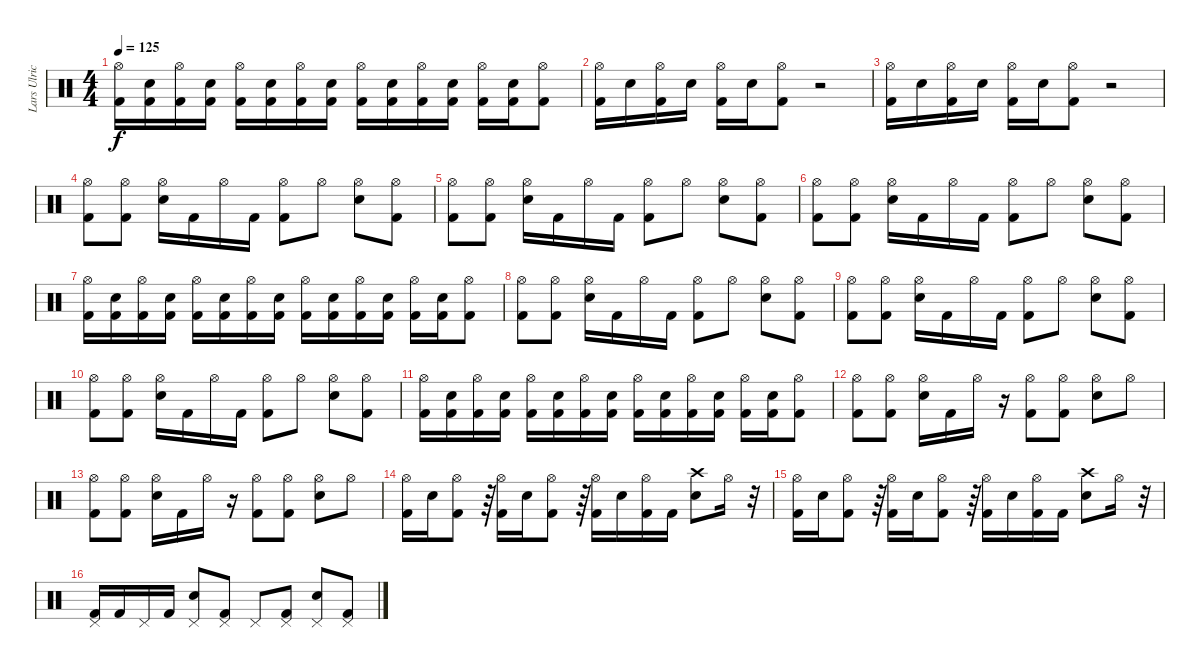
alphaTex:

\track ("Lars Ulrich" "Lars Ulric") {instrument percussion}
\staff {score}
\articulation defaults
\ts (4 4)
\tempo 125
\clef neutral
\ks c
("Hi-Hat (open)" "Kick (hit) 2").16{dy f} ("Electric Snare (hit)" "Kick (hit) 2").16 ("Hi-Hat (open)" "Kick (hit) 2").16 ("Electric Snare (hit)" "Kick (hit) 2").16 ("Hi-Hat (open)" "Kick (hit) 2").16 ("Electric Snare (hit)" "Kick (hit) 2").16 ("Hi-Hat (open)" "Kick (hit) 2").16 ("Electric Snare (hit)" "Kick (hit) 2").16 ("Hi-Hat (open)" "Kick (hit) 2").16 ("Electric Snare (hit)" "Kick (hit) 2").16 ("Hi-Hat (open)" "Kick (hit) 2").16 ("Electric Snare (hit)" "Kick (hit) 2").16 ("Hi-Hat (open)" "Kick (hit) 2").16 ("Electric Snare (hit)" "Kick (hit) 2").16 ("Hi-Hat (open)" "Kick (hit) 2").8 |
("Hi-Hat (open)" "Kick (hit) 2").16 "Electric Snare (hit)".16 ("Hi-Hat (open)" "Kick (hit) 2").16 "Electric Snare (hit)".16 ("Hi-Hat (open)" "Kick (hit) 2").16 "Electric Snare (hit)".16 ("Hi-Hat (open)" "Kick (hit) 2").8 r.2 |
("Hi-Hat (open)" "Kick (hit) 2").16 "Electric Snare (hit)".16 ("Hi-Hat (open)" "Kick (hit) 2").16 "Electric Snare (hit)".16 ("Hi-Hat (open)" "Kick (hit) 2").16 "Electric Snare (hit)".16 ("Hi-Hat (open)" "Kick (hit) 2").8 r.2 |
("Hi-Hat (open)" "Kick (hit) 2").8 ("Hi-Hat (open)" "Kick (hit) 2").8 ("Hi-Hat (open)" "Electric Snare (hit)").16 "Kick (hit) 2".16 "Hi-Hat (open)".16 "Kick (hit) 2".16 ("Hi-Hat (open)" "Kick (hit) 2").8 "Hi-Hat (open)".8 ("Hi-Hat (open)" "Electric Snare (hit)").8 ("Hi-Hat (open)" "Kick (hit) 2").8 |
("Hi-Hat (open)" "Kick (hit) 2").8 ("Hi-Hat (open)" "Kick (hit) 2").8 ("Hi-Hat (open)" "Electric Snare (hit)").16 "Kick (hit) 2".16 "Hi-Hat (open)".16 "Kick (hit) 2".16 ("Hi-Hat (open)" "Kick (hit) 2").8 "Hi-Hat (open)".8 ("Hi-Hat (open)" "Electric Snare (hit)").8 ("Hi-Hat (open)" "Kick (hit) 2").8 |
("Hi-Hat (open)" "Kick (hit) 2").8 ("Hi-Hat (open)" "Kick (hit) 2").8 ("Hi-Hat (open)" "Electric Snare (hit)").16 "Kick (hit) 2".16 "Hi-Hat (open)".16 "Kick (hit) 2".16 ("Hi-Hat (open)" "Kick (hit) 2").8 "Hi-Hat (open)".8 ("Hi-Hat (open)" "Electric Snare (hit)").8 ("Hi-Hat (open)" "Kick (hit) 2").8 |
("Hi-Hat (open)" "Kick (hit) 2").16 ("Electric Snare (hit)" "Kick (hit) 2").16 ("Hi-Hat (open)" "Kick (hit) 2").16 ("Electric Snare (hit)" "Kick (hit) 2").16 ("Hi-Hat (open)" "Kick (hit) 2").16 ("Electric Snare (hit)" "Kick (hit) 2").16 ("Hi-Hat (open)" "Kick (hit) 2").16 ("Electric Snare (hit)" "Kick (hit) 2").16 ("Hi-Hat (open)" "Kick (hit) 2").16 ("Electric Snare (hit)" "Kick (hit) 2").16 ("Hi-Hat (open)" "Kick (hit) 2").16 ("Electric Snare (hit)" "Kick (hit) 2").16 ("Hi-Hat (open)" "Kick (hit) 2").16 ("Electric Snare (hit)" "Kick (hit) 2").16 ("Hi-Hat (open)" "Kick (hit) 2").8 |
("Hi-Hat (open)" "Kick (hit) 2").8 ("Hi-Hat (open)" "Kick (hit) 2").8 ("Hi-Hat (open)" "Electric Snare (hit)").16 "Kick (hit) 2".16 "Hi-Hat (open)".16 "Kick (hit) 2".16 ("Hi-Hat (open)" "Kick (hit) 2").8 "Hi-Hat (open)".8 ("Hi-Hat (open)" "Electric Snare (hit)").8 ("Hi-Hat (open)" "Kick (hit) 2").8 |
("Hi-Hat (open)" "Kick (hit) 2").8 ("Hi-Hat (open)" "Kick (hit) 2").8 ("Hi-Hat (open)" "Electric Snare (hit)").16 "Kick (hit) 2".16 "Hi-Hat (open)".16 "Kick (hit) 2".16 ("Hi-Hat (open)" "Kick (hit) 2").8 "Hi-Hat (open)".8 ("Hi-Hat (open)" "Electric Snare (hit)").8 ("Hi-Hat (open)" "Kick (hit) 2").8 |
("Hi-Hat (open)" "Kick (hit) 2").8 ("Hi-Hat (open)" "Kick (hit) 2").8 ("Hi-Hat (open)" "Electric Snare (hit)").16 "Kick (hit) 2".16 "Hi-Hat (open)".16 "Kick (hit) 2".16 ("Hi-Hat (open)" "Kick (hit) 2").8 "Hi-Hat (open)".8 ("Hi-Hat (open)" "Electric Snare (hit)").8 ("Hi-Hat (open)" "Kick (hit) 2").8 |
("Hi-Hat (open)" "Kick (hit) 2").16 ("Electric Snare (hit)" "Kick (hit) 2").16 ("Hi-Hat (open)" "Kick (hit) 2").16 ("Electric Snare (hit)" "Kick (hit) 2").16 ("Hi-Hat (open)" "Kick (hit) 2").16 ("Electric Snare (hit)" "Kick (hit) 2").16 ("Hi-Hat (open)" "Kick (hit) 2").16 ("Electric Snare (hit)" "Kick (hit) 2").16 ("Hi-Hat (open)" "Kick (hit) 2").16 ("Electric Snare (hit)" "Kick (hit) 2").16 ("Hi-Hat (open)" "Kick (hit) 2").16 ("Electric Snare (hit)" "Kick (hit) 2").16 ("Hi-Hat (open)" "Kick (hit) 2").16 ("Electric Snare (hit)" "Kick (hit) 2").16 ("Hi-Hat (open)" "Kick (hit) 2").8 |
("Hi-Hat (open)" "Kick (hit) 2").8 ("Hi-Hat (open)" "Kick (hit) 2").8 ("Hi-Hat (open)" "Electric Snare (hit)").16 "Kick (hit) 2".16 "Hi-Hat (open)".16 r.16 ("Hi-Hat (open)" "Kick (hit) 2").8 ("Hi-Hat (open)" "Kick (hit) 2").8 ("Hi-Hat (open)" "Electric Snare (hit)").8 "Hi-Hat (open)".8 |
("Hi-Hat (open)" "Kick (hit) 2").8 ("Hi-Hat (open)" "Kick (hit) 2").8 ("Hi-Hat (open)" "Electric Snare (hit)").16 "Kick (hit) 2".16 "Hi-Hat (open)".16 r.16 ("Hi-Hat (open)" "Kick (hit) 2").8 ("Hi-Hat (open)" "Kick (hit) 2").8 ("Hi-Hat (open)" "Electric Snare (hit)").8 "Hi-Hat (open)".8 |
("Hi-Hat (open)" "Kick (hit) 2").16 "Electric Snare (hit)".16 ("Hi-Hat (open)" "Kick (hit) 2").8 r.64 ("Hi-Hat (open)" "Kick (hit) 2").16 "Electric Snare (hit)".16 ("Hi-Hat (open)" "Kick (hit) 2").8 r.64 ("Hi-Hat (open)" "Kick (hit) 2").16 "Electric Snare (hit)".16 ("Hi-Hat (open)" "Kick (hit) 2").16 "Kick (hit) 2".16 ("Crash high (hit)" "Electric Snare (hit)").8 "Hi-Hat (open)".16 r.32 |
("Hi-Hat (open)" "Kick (hit) 2").16 "Electric Snare (hit)".16 ("Hi-Hat (open)" "Kick (hit) 2").8 r.64 ("Hi-Hat (open)" "Kick (hit) 2").16 "Electric Snare (hit)".16 ("Hi-Hat (open)" "Kick (hit) 2").8 r.64 ("Hi-Hat (open)" "Kick (hit) 2").16 "Electric Snare (hit)".16 ("Hi-Hat (open)" "Kick (hit) 2").16 "Kick (hit) 2".16 ("Crash high (hit)" "Electric Snare (hit)").8 "Hi-Hat (open)".16 r.32 |
("Pedal Hi-Hat (hit)" "Kick (hit) 2").16 "Kick (hit) 2".16 "Pedal Hi-Hat (hit)".16 "Kick (hit) 2".16 ("Pedal Hi-Hat (hit)" "Electric Snare (hit)").8 ("Pedal Hi-Hat (hit)" "Kick (hit) 2").8 "Pedal Hi-Hat (hit)".8 ("Pedal Hi-Hat (hit)" "Kick (hit) 2").8 ("Pedal Hi-Hat (hit)" "Electric Snare (hit)").8 ("Pedal Hi-Hat (hit)" "Kick (hit) 2").8
